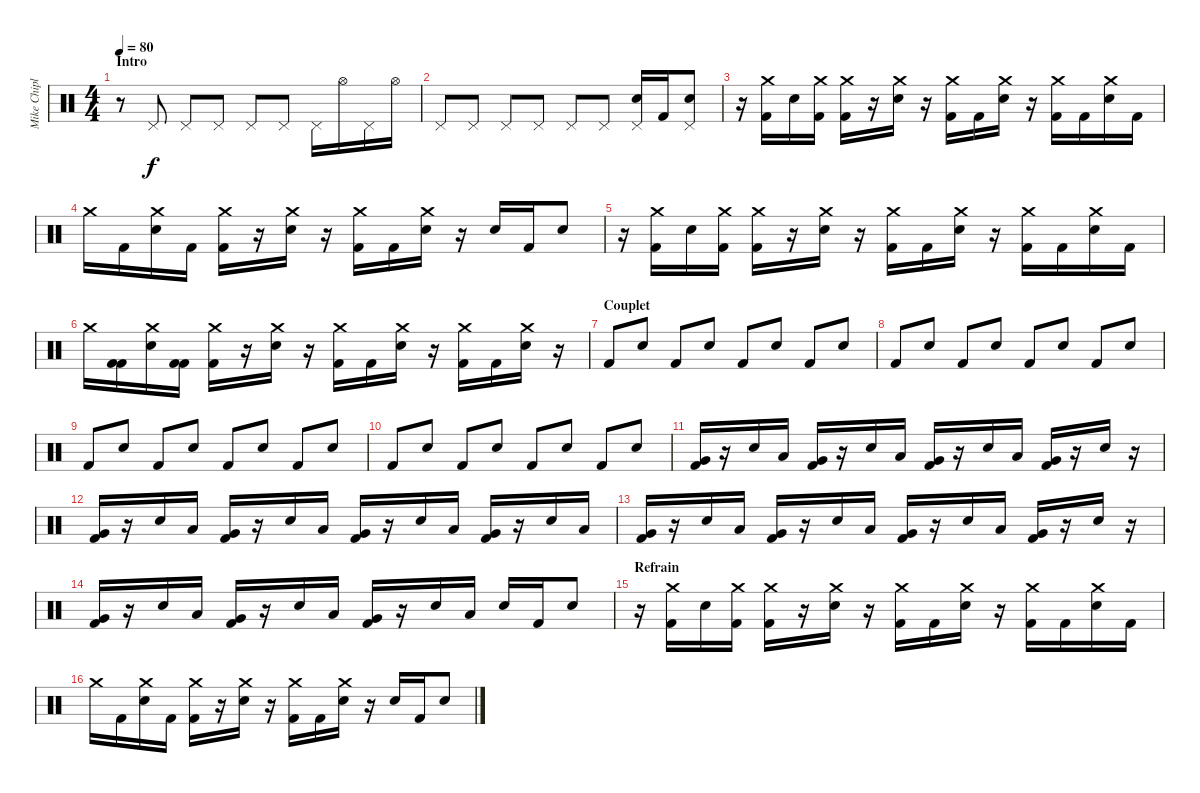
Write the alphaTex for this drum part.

\track ("Mike Chiplin" "Mike Chipl") {instrument percussion}
\staff {score}
\articulation defaults
\ts (4 4)
\section ("" "Intro")
\tempo 80
\clef neutral
\ks c
r.8{dy f} "Pedal Hi-Hat (hit)".8 "Pedal Hi-Hat (hit)".8 "Pedal Hi-Hat (hit)".8 "Pedal Hi-Hat (hit)".8 "Pedal Hi-Hat (hit)".8 "Pedal Hi-Hat (hit)".16 "Hi-Hat (open)".16 "Pedal Hi-Hat (hit)".16 "Hi-Hat (open)".16 |
"Pedal Hi-Hat (hit)".8 "Pedal Hi-Hat (hit)".8 "Pedal Hi-Hat (hit)".8 "Pedal Hi-Hat (hit)".8 "Pedal Hi-Hat (hit)".8 "Pedal Hi-Hat (hit)".8 ("Pedal Hi-Hat (hit)" "Snare (hit) 2").16 "Kick (hit) 2".16 ("Pedal Hi-Hat (hit)" "Snare (hit) 2").8 |
r.16 ("Crash medium (hit)" "Kick (hit) 2").16 "Snare (hit) 2".16 ("Crash medium (hit)" "Kick (hit) 2").16 ("Crash medium (hit)" "Kick (hit) 2").16 r.16 ("Crash medium (hit)" "Snare (hit) 2").16 r.16 ("Crash medium (hit)" "Kick (hit) 2").16 "Kick (hit) 2".16 ("Crash medium (hit)" "Snare (hit) 2").16 r.16 ("Crash medium (hit)" "Kick (hit) 2").16 "Kick (hit) 2".16 ("Crash medium (hit)" "Snare (hit) 2").16 "Kick (hit) 2".16 |
"Crash medium (hit)".16 "Kick (hit) 2".16 ("Snare (hit) 2" "Crash medium (hit)").16 "Kick (hit) 2".16 ("Kick (hit) 2" "Crash medium (hit)").16 r.16 ("Snare (hit) 2" "Crash medium (hit)").16 r.16 ("Kick (hit) 2" "Crash medium (hit)").16 "Kick (hit) 2".16 ("Crash medium (hit)" "Snare (hit) 2").16 r.16 "Snare (hit) 2".16 "Kick (hit) 2".16 "Snare (hit) 2".8 |
r.16 ("Crash medium (hit)" "Kick (hit) 2").16 "Snare (hit) 2".16 ("Crash medium (hit)" "Kick (hit) 2").16 ("Crash medium (hit)" "Kick (hit) 2").16 r.16 ("Crash medium (hit)" "Snare (hit) 2").16 r.16 ("Crash medium (hit)" "Kick (hit) 2").16 "Kick (hit) 2".16 ("Crash medium (hit)" "Snare (hit) 2").16 r.16 ("Crash medium (hit)" "Kick (hit) 2").16 "Kick (hit) 2".16 ("Crash medium (hit)" "Snare (hit) 2").16 "Kick (hit) 2".16 |
"Crash medium (hit)".16 ("Kick (hit) 2" "Kick (hit) 2").16 ("Crash medium (hit)" "Snare (hit) 2").16 ("Kick (hit) 2" "Kick (hit) 2").16 ("Crash medium (hit)" "Kick (hit) 2").16 r.16 ("Crash medium (hit)" "Snare (hit) 2").16 r.16 ("Crash medium (hit)" "Kick (hit) 2").16 "Kick (hit) 2".16 ("Crash medium (hit)" "Snare (hit) 2").16 r.16 ("Crash medium (hit)" "Kick (hit) 2").16 "Kick (hit) 2".16 ("Crash medium (hit)" "Snare (hit) 2").16 r.16 |
\section ("" "Couplet")
"Kick (hit) 2".8 "Snare (hit) 2".8 "Kick (hit) 2".8 "Snare (hit) 2".8 "Kick (hit) 2".8 "Snare (hit) 2".8 "Kick (hit) 2".8 "Snare (hit) 2".8 |
"Kick (hit) 2".8 "Snare (hit) 2".8 "Kick (hit) 2".8 "Snare (hit) 2".8 "Kick (hit) 2".8 "Snare (hit) 2".8 "Kick (hit) 2".8 "Snare (hit) 2".8 |
"Kick (hit) 2".8 "Snare (hit) 2".8 "Kick (hit) 2".8 "Snare (hit) 2".8 "Kick (hit) 2".8 "Snare (hit) 2".8 "Kick (hit) 2".8 "Snare (hit) 2".8 |
"Kick (hit) 2".8 "Snare (hit) 2".8 "Kick (hit) 2".8 "Snare (hit) 2".8 "Kick (hit) 2".8 "Snare (hit) 2".8 "Kick (hit) 2".8 "Snare (hit) 2".8 |
("Very Low Tom (hit)" "Kick (hit) 2").16 r.16 "Snare (hit) 2".16 "Low Tom (hit)".16 ("Very Low Tom (hit)" "Kick (hit) 2").16 r.16 "Snare (hit) 2".16 "Low Tom (hit)".16 ("Very Low Tom (hit)" "Kick (hit) 2").16 r.16 "Snare (hit) 2".16 "Low Tom (hit)".16 ("Very Low Tom (hit)" "Kick (hit) 2").16 r.16 "Snare (hit) 2".16 r.16 |
("Very Low Tom (hit)" "Kick (hit) 2").16 r.16 "Snare (hit) 2".16 "Low Tom (hit)".16 ("Very Low Tom (hit)" "Kick (hit) 2").16 r.16 "Snare (hit) 2".16 "Low Tom (hit)".16 ("Very Low Tom (hit)" "Kick (hit) 2").16 r.16 "Snare (hit) 2".16 "Low Tom (hit)".16 ("Very Low Tom (hit)" "Kick (hit) 2").16 r.16 "Snare (hit) 2".16 "Low Tom (hit)".16 |
("Very Low Tom (hit)" "Kick (hit) 2").16 r.16 "Snare (hit) 2".16 "Low Tom (hit)".16 ("Very Low Tom (hit)" "Kick (hit) 2").16 r.16 "Snare (hit) 2".16 "Low Tom (hit)".16 ("Very Low Tom (hit)" "Kick (hit) 2").16 r.16 "Snare (hit) 2".16 "Low Tom (hit)".16 ("Very Low Tom (hit)" "Kick (hit) 2").16 r.16 "Snare (hit) 2".16 r.16 |
("Very Low Tom (hit)" "Kick (hit) 2").16 r.16 "Snare (hit) 2".16 "Low Tom (hit)".16 ("Very Low Tom (hit)" "Kick (hit) 2").16 r.16 "Snare (hit) 2".16 "Low Tom (hit)".16 ("Very Low Tom (hit)" "Kick (hit) 2").16 r.16 "Snare (hit) 2".16 "Low Tom (hit)".16 "Snare (hit) 2".16 "Kick (hit) 2".16 "Snare (hit) 2".8 |
\section ("" "Refrain")
r.16 ("Crash medium (hit)" "Kick (hit) 2").16 "Snare (hit) 2".16 ("Crash medium (hit)" "Kick (hit) 2").16 ("Crash medium (hit)" "Kick (hit) 2").16 r.16 ("Crash medium (hit)" "Snare (hit) 2").16 r.16 ("Crash medium (hit)" "Kick (hit) 2").16 "Kick (hit) 2".16 ("Crash medium (hit)" "Snare (hit) 2").16 r.16 ("Crash medium (hit)" "Kick (hit) 2").16 "Kick (hit) 2".16 ("Crash medium (hit)" "Snare (hit) 2").16 "Kick (hit) 2".16 |
"Crash medium (hit)".16 "Kick (hit) 2".16 ("Snare (hit) 2" "Crash medium (hit)").16 "Kick (hit) 2".16 ("Kick (hit) 2" "Crash medium (hit)").16 r.16 ("Snare (hit) 2" "Crash medium (hit)").16 r.16 ("Kick (hit) 2" "Crash medium (hit)").16 "Kick (hit) 2".16 ("Crash medium (hit)" "Snare (hit) 2").16 r.16 "Snare (hit) 2".16 "Kick (hit) 2".16 "Snare (hit) 2".8
